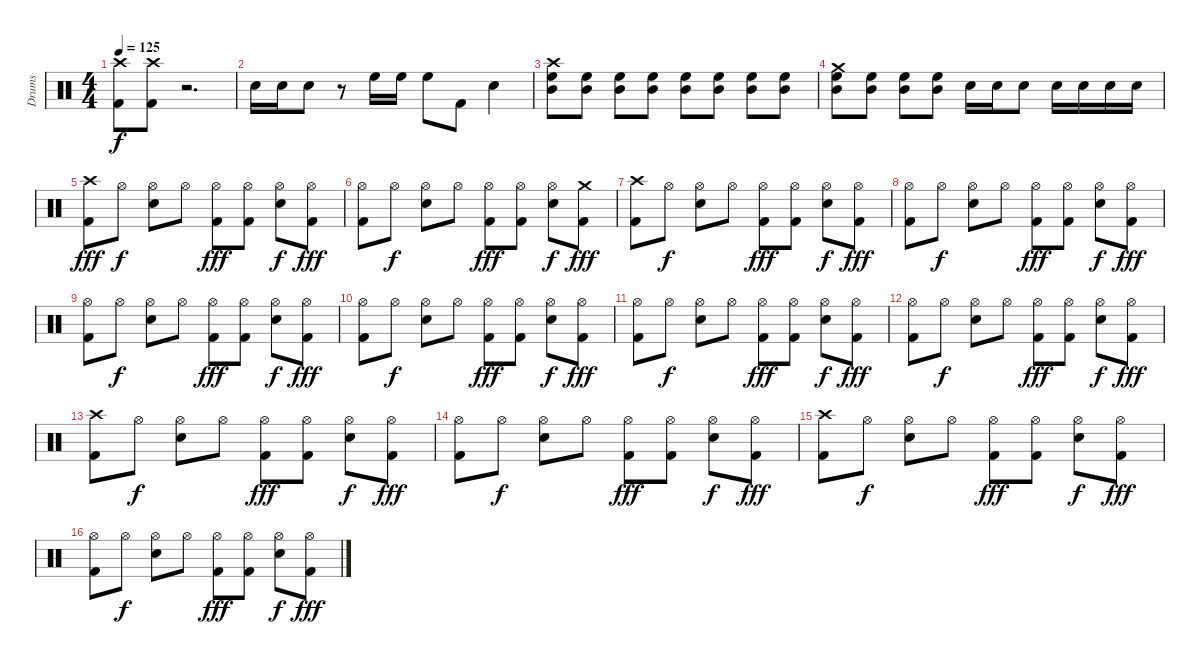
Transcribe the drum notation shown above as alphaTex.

\track ("Drums" "Drums") {instrument percussion}
\staff {score}
\articulation defaults
\ts (4 4)
\tempo 125
\clef neutral
\ks c
("Crash high (hit)" "Kick (hit) 2").8{dy f} ("Crash high (hit)" "Kick (hit) 2").8 r.2{d} |
"Snare (hit) 2".16 "Snare (hit) 2".16 "Snare (hit) 2".8 r.8 "High Floor Tom (hit)".16 "High Floor Tom (hit)".16 "High Floor Tom (hit)".8 "Kick (hit) 2".8 "Snare (hit) 2".4 |
("Crash high (hit)" "High Floor Tom (hit)" "Mid Tom (hit)").8 ("High Floor Tom (hit)" "Mid Tom (hit)").8 ("High Floor Tom (hit)" "Mid Tom (hit)").8 ("High Floor Tom (hit)" "Mid Tom (hit)").8 ("High Floor Tom (hit)" "Mid Tom (hit)").8 ("High Floor Tom (hit)" "Mid Tom (hit)").8 ("High Floor Tom (hit)" "Mid Tom (hit)").8 ("High Floor Tom (hit)" "Mid Tom (hit)").8 |
("Crash medium (hit)" "High Floor Tom (hit)" "Mid Tom (hit)").8 ("High Floor Tom (hit)" "Mid Tom (hit)").8 ("High Floor Tom (hit)" "Mid Tom (hit)").8 ("High Floor Tom (hit)" "Mid Tom (hit)").8 "Snare (hit) 2".16 "Snare (hit) 2".16 "Snare (hit) 2".8 "Snare (hit) 2".16 "Snare (hit) 2".16 "Snare (hit) 2".16 "Snare (hit) 2".16 |
("Crash high (hit)" "Kick (hit) 2").8{dy fff} "Hi-Hat (open)".8{dy f} ("Hi-Hat (open)" "Snare (hit) 2").8 "Hi-Hat (open)".8 ("Hi-Hat (open)" "Kick (hit) 2").8{dy fff} ("Hi-Hat (open)" "Kick (hit) 2").8 ("Hi-Hat (open)" "Snare (hit) 2").8{dy f} ("Hi-Hat (open)" "Kick (hit) 2").8{dy fff} |
("Hi-Hat (open)" "Kick (hit) 2").8 "Hi-Hat (open)".8{dy f} ("Hi-Hat (open)" "Snare (hit) 2").8 "Hi-Hat (open)".8 ("Hi-Hat (open)" "Kick (hit) 2").8{dy fff} ("Hi-Hat (open)" "Kick (hit) 2").8 ("Hi-Hat (open)" "Snare (hit) 2").8{dy f} ("Crash medium (hit)" "Kick (hit) 2").8{dy fff} |
("Crash high (hit)" "Kick (hit) 2").8 "Hi-Hat (open)".8{dy f} ("Hi-Hat (open)" "Snare (hit) 2").8 "Hi-Hat (open)".8 ("Hi-Hat (open)" "Kick (hit) 2").8{dy fff} ("Hi-Hat (open)" "Kick (hit) 2").8 ("Hi-Hat (open)" "Snare (hit) 2").8{dy f} ("Hi-Hat (open)" "Kick (hit) 2").8{dy fff} |
("Hi-Hat (open)" "Kick (hit) 2").8 "Hi-Hat (open)".8{dy f} ("Hi-Hat (open)" "Snare (hit) 2").8 "Hi-Hat (open)".8 ("Hi-Hat (open)" "Kick (hit) 2").8{dy fff} ("Hi-Hat (open)" "Kick (hit) 2").8 ("Hi-Hat (open)" "Snare (hit) 2").8{dy f} ("Hi-Hat (open)" "Kick (hit) 2").8{dy fff} |
("Hi-Hat (open)" "Kick (hit) 2").8 "Hi-Hat (open)".8{dy f} ("Hi-Hat (open)" "Snare (hit) 2").8 "Hi-Hat (open)".8 ("Hi-Hat (open)" "Kick (hit) 2").8{dy fff} ("Hi-Hat (open)" "Kick (hit) 2").8 ("Hi-Hat (open)" "Snare (hit) 2").8{dy f} ("Hi-Hat (open)" "Kick (hit) 2").8{dy fff} |
("Hi-Hat (open)" "Kick (hit) 2").8 "Hi-Hat (open)".8{dy f} ("Hi-Hat (open)" "Snare (hit) 2").8 "Hi-Hat (open)".8 ("Hi-Hat (open)" "Kick (hit) 2").8{dy fff} ("Hi-Hat (open)" "Kick (hit) 2").8 ("Hi-Hat (open)" "Snare (hit) 2").8{dy f} ("Hi-Hat (open)" "Kick (hit) 2").8{dy fff} |
("Hi-Hat (open)" "Kick (hit) 2").8 "Hi-Hat (open)".8{dy f} ("Hi-Hat (open)" "Snare (hit) 2").8 "Hi-Hat (open)".8 ("Hi-Hat (open)" "Kick (hit) 2").8{dy fff} ("Hi-Hat (open)" "Kick (hit) 2").8 ("Hi-Hat (open)" "Snare (hit) 2").8{dy f} ("Hi-Hat (open)" "Kick (hit) 2").8{dy fff} |
("Hi-Hat (open)" "Kick (hit) 2").8 "Hi-Hat (open)".8{dy f} ("Hi-Hat (open)" "Snare (hit) 2").8 "Hi-Hat (open)".8 ("Hi-Hat (open)" "Kick (hit) 2").8{dy fff} ("Hi-Hat (open)" "Kick (hit) 2").8 ("Hi-Hat (open)" "Snare (hit) 2").8{dy f} ("Hi-Hat (open)" "Kick (hit) 2").8{dy fff} |
("Crash high (hit)" "Kick (hit) 2").8 "Hi-Hat (open)".8{dy f} ("Hi-Hat (open)" "Snare (hit) 2").8 "Hi-Hat (open)".8 ("Hi-Hat (open)" "Kick (hit) 2").8{dy fff} ("Hi-Hat (open)" "Kick (hit) 2").8 ("Hi-Hat (open)" "Snare (hit) 2").8{dy f} ("Hi-Hat (open)" "Kick (hit) 2").8{dy fff} |
("Hi-Hat (open)" "Kick (hit) 2").8 "Hi-Hat (open)".8{dy f} ("Hi-Hat (open)" "Snare (hit) 2").8 "Hi-Hat (open)".8 ("Hi-Hat (open)" "Kick (hit) 2").8{dy fff} ("Hi-Hat (open)" "Kick (hit) 2").8 ("Hi-Hat (open)" "Snare (hit) 2").8{dy f} ("Hi-Hat (open)" "Kick (hit) 2").8{dy fff} |
("Crash high (hit)" "Kick (hit) 2").8 "Hi-Hat (open)".8{dy f} ("Hi-Hat (open)" "Snare (hit) 2").8 "Hi-Hat (open)".8 ("Hi-Hat (open)" "Kick (hit) 2").8{dy fff} ("Hi-Hat (open)" "Kick (hit) 2").8 ("Hi-Hat (open)" "Snare (hit) 2").8{dy f} ("Hi-Hat (open)" "Kick (hit) 2").8{dy fff} |
("Hi-Hat (open)" "Kick (hit) 2").8 "Hi-Hat (open)".8{dy f} ("Hi-Hat (open)" "Snare (hit) 2").8 "Hi-Hat (open)".8 ("Hi-Hat (open)" "Kick (hit) 2").8{dy fff} ("Hi-Hat (open)" "Kick (hit) 2").8 ("Hi-Hat (open)" "Snare (hit) 2").8{dy f} ("Hi-Hat (open)" "Kick (hit) 2").8{dy fff}
